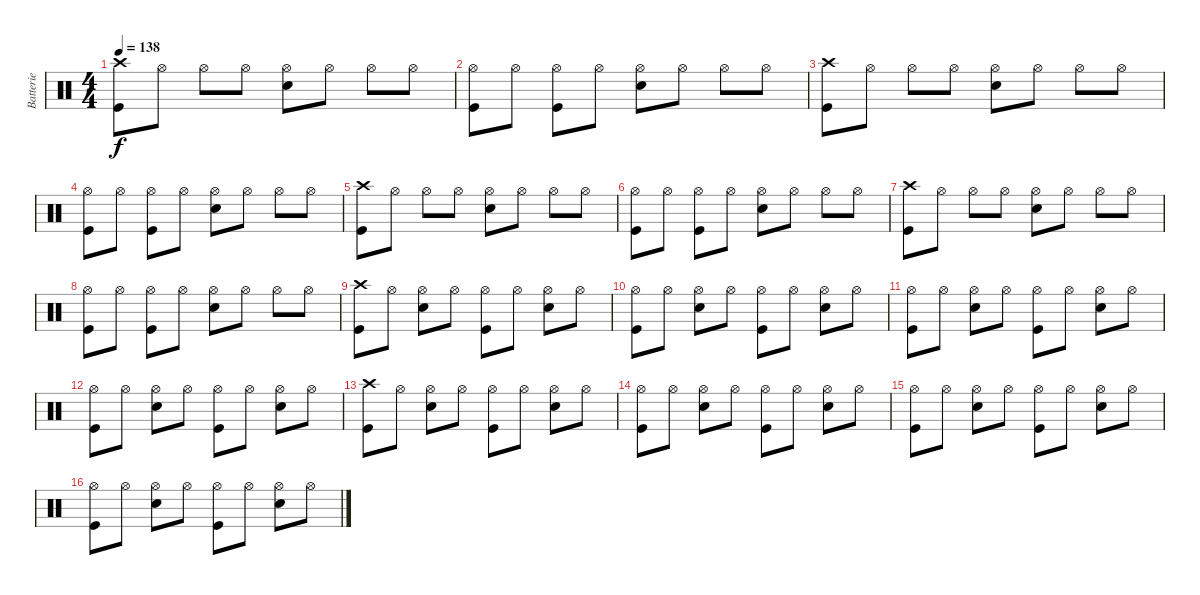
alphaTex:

\track ("Batterie" "Batterie") {instrument percussion}
\staff {score}
\articulation defaults
\ts (4 4)
\tempo 138
\clef neutral
\ks c
("Crash high (hit)" "Kick (hit)").8{dy f} "Hi-Hat (open)".8 "Hi-Hat (open)".8 "Hi-Hat (open)".8 ("Hi-Hat (open)" "Snare (hit) 2").8 "Hi-Hat (open)".8 "Hi-Hat (open)".8 "Hi-Hat (open)".8 |
("Hi-Hat (open)" "Kick (hit)").8 "Hi-Hat (open)".8 ("Hi-Hat (open)" "Kick (hit)").8 "Hi-Hat (open)".8 ("Hi-Hat (open)" "Snare (hit) 2").8 "Hi-Hat (open)".8 "Hi-Hat (open)".8 "Hi-Hat (open)".8 |
("Crash high (hit)" "Kick (hit)").8 "Hi-Hat (open)".8 "Hi-Hat (open)".8 "Hi-Hat (open)".8 ("Hi-Hat (open)" "Snare (hit) 2").8 "Hi-Hat (open)".8 "Hi-Hat (open)".8 "Hi-Hat (open)".8 |
("Hi-Hat (open)" "Kick (hit)").8 "Hi-Hat (open)".8 ("Hi-Hat (open)" "Kick (hit)").8 "Hi-Hat (open)".8 ("Hi-Hat (open)" "Snare (hit) 2").8 "Hi-Hat (open)".8 "Hi-Hat (open)".8 "Hi-Hat (open)".8 |
("Crash high (hit)" "Kick (hit)").8 "Hi-Hat (open)".8 "Hi-Hat (open)".8 "Hi-Hat (open)".8 ("Hi-Hat (open)" "Snare (hit) 2").8 "Hi-Hat (open)".8 "Hi-Hat (open)".8 "Hi-Hat (open)".8 |
("Hi-Hat (open)" "Kick (hit)").8 "Hi-Hat (open)".8 ("Hi-Hat (open)" "Kick (hit)").8 "Hi-Hat (open)".8 ("Hi-Hat (open)" "Snare (hit) 2").8 "Hi-Hat (open)".8 "Hi-Hat (open)".8 "Hi-Hat (open)".8 |
("Crash high (hit)" "Kick (hit)").8 "Hi-Hat (open)".8 "Hi-Hat (open)".8 "Hi-Hat (open)".8 ("Hi-Hat (open)" "Snare (hit) 2").8 "Hi-Hat (open)".8 "Hi-Hat (open)".8 "Hi-Hat (open)".8 |
("Hi-Hat (open)" "Kick (hit)").8 "Hi-Hat (open)".8 ("Hi-Hat (open)" "Kick (hit)").8 "Hi-Hat (open)".8 ("Hi-Hat (open)" "Snare (hit) 2").8 "Hi-Hat (open)".8 "Hi-Hat (open)".8 "Hi-Hat (open)".8 |
("Crash high (hit)" "Kick (hit)").8 "Hi-Hat (open)".8 ("Hi-Hat (open)" "Snare (hit) 2").8 "Hi-Hat (open)".8 ("Hi-Hat (open)" "Kick (hit)").8 "Hi-Hat (open)".8 ("Hi-Hat (open)" "Snare (hit) 2").8 "Hi-Hat (open)".8 |
("Hi-Hat (open)" "Kick (hit)").8 "Hi-Hat (open)".8 ("Hi-Hat (open)" "Snare (hit) 2").8 "Hi-Hat (open)".8 ("Hi-Hat (open)" "Kick (hit)").8 "Hi-Hat (open)".8 ("Hi-Hat (open)" "Snare (hit) 2").8 "Hi-Hat (open)".8 |
("Hi-Hat (open)" "Kick (hit)").8 "Hi-Hat (open)".8 ("Hi-Hat (open)" "Snare (hit) 2").8 "Hi-Hat (open)".8 ("Hi-Hat (open)" "Kick (hit)").8 "Hi-Hat (open)".8 ("Hi-Hat (open)" "Snare (hit) 2").8 "Hi-Hat (open)".8 |
("Hi-Hat (open)" "Kick (hit)").8 "Hi-Hat (open)".8 ("Hi-Hat (open)" "Snare (hit) 2").8 "Hi-Hat (open)".8 ("Hi-Hat (open)" "Kick (hit)").8 "Hi-Hat (open)".8 ("Hi-Hat (open)" "Snare (hit) 2").8 "Hi-Hat (open)".8 |
("Crash high (hit)" "Kick (hit)").8 "Hi-Hat (open)".8 ("Hi-Hat (open)" "Snare (hit) 2").8 "Hi-Hat (open)".8 ("Hi-Hat (open)" "Kick (hit)").8 "Hi-Hat (open)".8 ("Hi-Hat (open)" "Snare (hit) 2").8 "Hi-Hat (open)".8 |
("Hi-Hat (open)" "Kick (hit)").8 "Hi-Hat (open)".8 ("Hi-Hat (open)" "Snare (hit) 2").8 "Hi-Hat (open)".8 ("Hi-Hat (open)" "Kick (hit)").8 "Hi-Hat (open)".8 ("Hi-Hat (open)" "Snare (hit) 2").8 "Hi-Hat (open)".8 |
("Hi-Hat (open)" "Kick (hit)").8 "Hi-Hat (open)".8 ("Hi-Hat (open)" "Snare (hit) 2").8 "Hi-Hat (open)".8 ("Hi-Hat (open)" "Kick (hit)").8 "Hi-Hat (open)".8 ("Hi-Hat (open)" "Snare (hit) 2").8 "Hi-Hat (open)".8 |
("Hi-Hat (open)" "Kick (hit)").8 "Hi-Hat (open)".8 ("Hi-Hat (open)" "Snare (hit) 2").8 "Hi-Hat (open)".8 ("Hi-Hat (open)" "Kick (hit)").8 "Hi-Hat (open)".8 ("Hi-Hat (open)" "Snare (hit) 2").8 "Hi-Hat (open)".8
